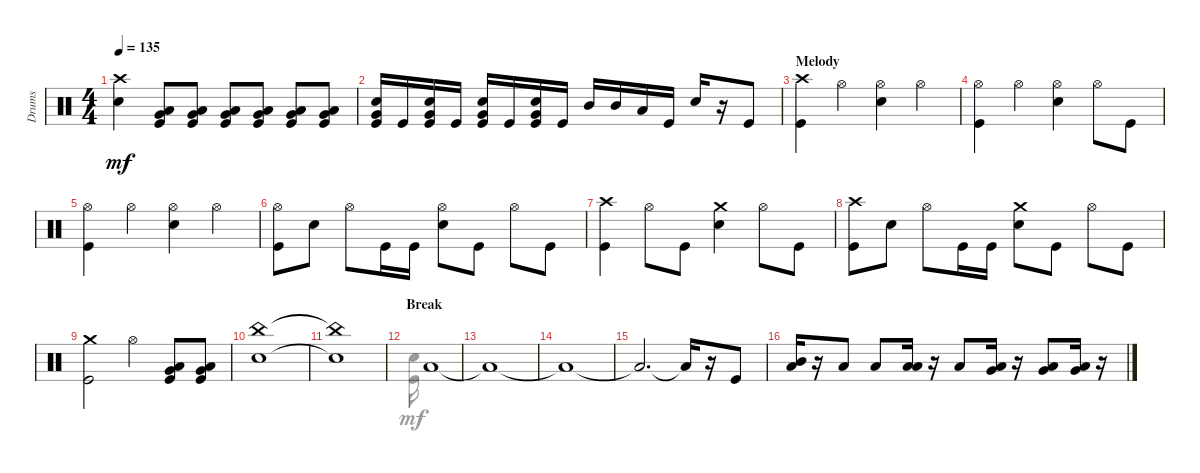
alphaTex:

\track ("Drums" "Drums") {instrument percussion}
\staff {score}
\articulation defaults
\voice
\ts (4 4)
\tempo 135
\clef neutral
\ks aminor
("Crash high (hit)" "Snare (hit) 2").4{dy mf} ("Low Floor Tom (hit)" "Kick (hit)" "Very Low Tom (hit)").8 ("Very Low Tom (hit)" "Low Floor Tom (hit)" "Kick (hit)").8 ("Very Low Tom (hit)" "Low Floor Tom (hit)" "Kick (hit)").8 ("Low Floor Tom (hit)" "Very Low Tom (hit)" "Kick (hit)").8 ("Very Low Tom (hit)" "Kick (hit)" "Low Floor Tom (hit)").8 ("Kick (hit)" "Low Floor Tom (hit)" "Very Low Tom (hit)").8 |
("Kick (hit)" "Snare (hit) 2" "Very Low Tom (hit)").16 "Kick (hit)".16 ("Very Low Tom (hit)" "Snare (hit) 2" "Kick (hit)").16 "Kick (hit)".16 ("Very Low Tom (hit)" "Snare (hit) 2" "Kick (hit)").16 "Kick (hit)".16 ("Snare (hit) 2" "Very Low Tom (hit)" "Kick (hit)").16 "Kick (hit)".16 "Mid Tom (hit)".16 "Mid Tom (hit)".16 "Low Tom (hit)".16 "Kick (hit)".16 "Snare (hit) 2".16 r.16 "Kick (hit)".8 |
\section ("" "Melody")
("Kick (hit)" "Crash high (hit)").4 "Hi-Hat (open)".4 ("Snare (hit) 2" "Hi-Hat (open)").4 "Hi-Hat (open)".4 |
("Kick (hit)" "Hi-Hat (open)").4 "Hi-Hat (open)".4 ("Snare (hit) 2" "Hi-Hat (open)").4 "Hi-Hat (open)".8 "Kick (hit)".8 |
("Hi-Hat (open)" "Kick (hit)").4 "Hi-Hat (open)".4 ("Snare (hit) 2" "Hi-Hat (open)").4 "Hi-Hat (open)".4 |
("Kick (hit)" "Hi-Hat (open)").8 "Snare (hit) 2".8 "Hi-Hat (open)".8 "Kick (hit)".16 "Kick (hit)".16 ("Hi-Hat (open)" "Snare (hit) 2").8 "Kick (hit)".8 "Hi-Hat (open)".8 "Kick (hit)".8 |
("Crash high (hit)" "Kick (hit)").4 "Hi-Hat (open)".8 "Kick (hit)".8 ("Snare (hit) 2" "Crash medium (hit)").4 "Hi-Hat (open)".8 "Kick (hit)".8 |
("Kick (hit)" "Crash high (hit)").8 "Snare (hit) 2".8 "Hi-Hat (open)".8 "Kick (hit)".16 "Kick (hit)".16 ("Snare (hit) 2" "Crash medium (hit)").8 "Kick (hit)".8 "Hi-Hat (open)".8 "Kick (hit)".8 |
("Kick (hit)" "Crash medium (hit)").2 "Hi-Hat (open)".4 ("Very Low Tom (hit)" "Kick (hit)" "Low Floor Tom (hit)").8 ("Low Floor Tom (hit)" "Kick (hit)" "Very Low Tom (hit)").8 |
("China (hit)" "Snare (hit) 2").1 |
("China (hit)"{t} "Snare (hit) 2"{t}).1 |
\section ("" "Break")
"Low Floor Tom (hit)".1 |
"Low Floor Tom (hit)"{t}.1 |
"Low Floor Tom (hit)"{t}.1 |
"Low Floor Tom (hit)"{t}.2{d} "Low Floor Tom (hit)"{t}.16 r.16 "Kick (hit)".8 |
("Mid Tom (hit)" "Low Floor Tom (hit)").16 r.16 "Low Floor Tom (hit)".8 "Low Floor Tom (hit)".8 ("Low Tom (hit)" "Low Floor Tom (hit)").16 r.16 "Low Floor Tom (hit)".8 ("Low Floor Tom (hit)" "Very Low Tom (hit)").16 r.16 ("Very Low Tom (hit)" "Low Floor Tom (hit)").8 ("Very Low Tom (hit)" "Low Floor Tom (hit)").16 r.16
\voice
\clef neutral
\ottava regular
\simile none
\ks aminor
|
|
|
|
|
|
|
|
|
|
|
("Hand Clap (hit)" "Kick (hit)").16 |
|
|
|
